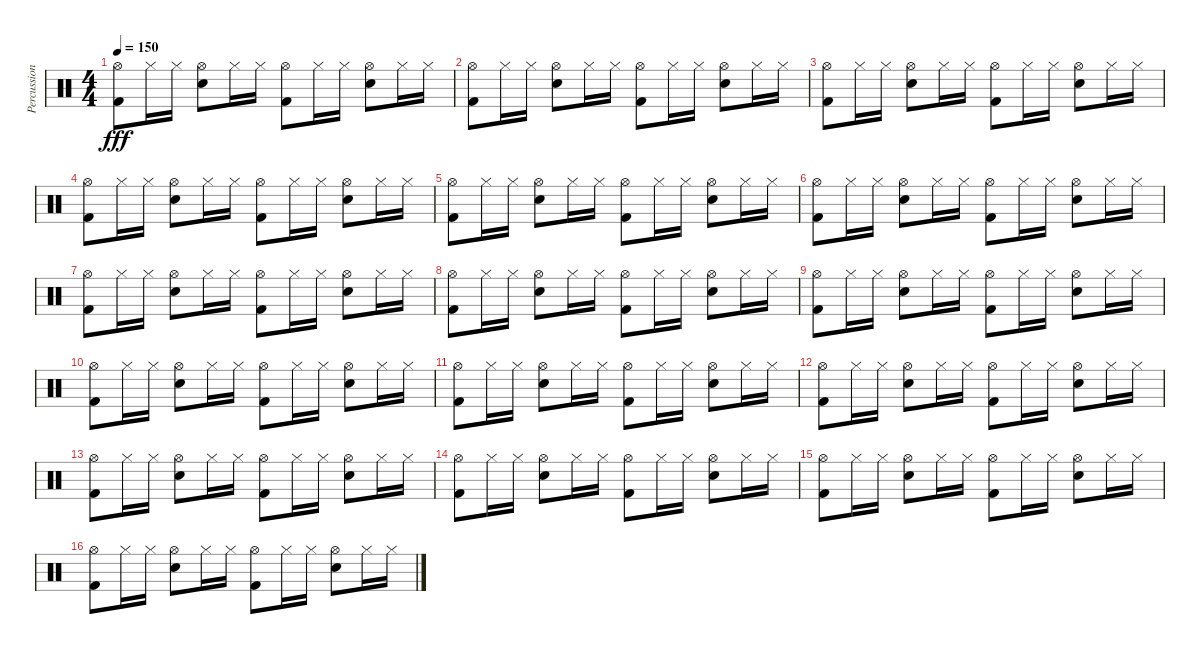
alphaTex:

\track ("Percussion" "Percussion") {instrument percussion}
\staff {score}
\articulation defaults
\ts (4 4)
\tempo 150
\clef neutral
\ks c
("Kick (hit) 2" "Hi-Hat (open)").8{dy fff} "Hi-Hat (closed)".16 "Hi-Hat (closed)".16 ("Snare (hit) 2" "Hi-Hat (open)").8 "Hi-Hat (closed)".16 "Hi-Hat (closed)".16 ("Kick (hit) 2" "Hi-Hat (open)").8 "Hi-Hat (closed)".16 "Hi-Hat (closed)".16 ("Snare (hit) 2" "Hi-Hat (open)").8 "Hi-Hat (closed)".16 "Hi-Hat (closed)".16 |
("Kick (hit) 2" "Hi-Hat (open)").8 "Hi-Hat (closed)".16 "Hi-Hat (closed)".16 ("Snare (hit) 2" "Hi-Hat (open)").8 "Hi-Hat (closed)".16 "Hi-Hat (closed)".16 ("Kick (hit) 2" "Hi-Hat (open)").8 "Hi-Hat (closed)".16 "Hi-Hat (closed)".16 ("Snare (hit) 2" "Hi-Hat (open)").8 "Hi-Hat (closed)".16 "Hi-Hat (closed)".16 |
("Kick (hit) 2" "Hi-Hat (open)").8 "Hi-Hat (closed)".16 "Hi-Hat (closed)".16 ("Snare (hit) 2" "Hi-Hat (open)").8 "Hi-Hat (closed)".16 "Hi-Hat (closed)".16 ("Kick (hit) 2" "Hi-Hat (open)").8 "Hi-Hat (closed)".16 "Hi-Hat (closed)".16 ("Snare (hit) 2" "Hi-Hat (open)").8 "Hi-Hat (closed)".16 "Hi-Hat (closed)".16 |
("Kick (hit) 2" "Hi-Hat (open)").8 "Hi-Hat (closed)".16 "Hi-Hat (closed)".16 ("Snare (hit) 2" "Hi-Hat (open)").8 "Hi-Hat (closed)".16 "Hi-Hat (closed)".16 ("Kick (hit) 2" "Hi-Hat (open)").8 "Hi-Hat (closed)".16 "Hi-Hat (closed)".16 ("Snare (hit) 2" "Hi-Hat (open)").8 "Hi-Hat (closed)".16 "Hi-Hat (closed)".16 |
("Kick (hit) 2" "Hi-Hat (open)").8 "Hi-Hat (closed)".16 "Hi-Hat (closed)".16 ("Snare (hit) 2" "Hi-Hat (open)").8 "Hi-Hat (closed)".16 "Hi-Hat (closed)".16 ("Kick (hit) 2" "Hi-Hat (open)").8 "Hi-Hat (closed)".16 "Hi-Hat (closed)".16 ("Snare (hit) 2" "Hi-Hat (open)").8 "Hi-Hat (closed)".16 "Hi-Hat (closed)".16 |
("Kick (hit) 2" "Hi-Hat (open)").8 "Hi-Hat (closed)".16 "Hi-Hat (closed)".16 ("Snare (hit) 2" "Hi-Hat (open)").8 "Hi-Hat (closed)".16 "Hi-Hat (closed)".16 ("Kick (hit) 2" "Hi-Hat (open)").8 "Hi-Hat (closed)".16 "Hi-Hat (closed)".16 ("Snare (hit) 2" "Hi-Hat (open)").8 "Hi-Hat (closed)".16 "Hi-Hat (closed)".16 |
("Kick (hit) 2" "Hi-Hat (open)").8 "Hi-Hat (closed)".16 "Hi-Hat (closed)".16 ("Snare (hit) 2" "Hi-Hat (open)").8 "Hi-Hat (closed)".16 "Hi-Hat (closed)".16 ("Kick (hit) 2" "Hi-Hat (open)").8 "Hi-Hat (closed)".16 "Hi-Hat (closed)".16 ("Snare (hit) 2" "Hi-Hat (open)").8 "Hi-Hat (closed)".16 "Hi-Hat (closed)".16 |
("Kick (hit) 2" "Hi-Hat (open)").8 "Hi-Hat (closed)".16 "Hi-Hat (closed)".16 ("Snare (hit) 2" "Hi-Hat (open)").8 "Hi-Hat (closed)".16 "Hi-Hat (closed)".16 ("Kick (hit) 2" "Hi-Hat (open)").8 "Hi-Hat (closed)".16 "Hi-Hat (closed)".16 ("Snare (hit) 2" "Hi-Hat (open)").8 "Hi-Hat (closed)".16 "Hi-Hat (closed)".16 |
("Kick (hit) 2" "Hi-Hat (open)").8 "Hi-Hat (closed)".16 "Hi-Hat (closed)".16 ("Snare (hit) 2" "Hi-Hat (open)").8 "Hi-Hat (closed)".16 "Hi-Hat (closed)".16 ("Kick (hit) 2" "Hi-Hat (open)").8 "Hi-Hat (closed)".16 "Hi-Hat (closed)".16 ("Snare (hit) 2" "Hi-Hat (open)").8 "Hi-Hat (closed)".16 "Hi-Hat (closed)".16 |
("Kick (hit) 2" "Hi-Hat (open)").8 "Hi-Hat (closed)".16 "Hi-Hat (closed)".16 ("Snare (hit) 2" "Hi-Hat (open)").8 "Hi-Hat (closed)".16 "Hi-Hat (closed)".16 ("Kick (hit) 2" "Hi-Hat (open)").8 "Hi-Hat (closed)".16 "Hi-Hat (closed)".16 ("Snare (hit) 2" "Hi-Hat (open)").8 "Hi-Hat (closed)".16 "Hi-Hat (closed)".16 |
("Kick (hit) 2" "Hi-Hat (open)").8 "Hi-Hat (closed)".16 "Hi-Hat (closed)".16 ("Snare (hit) 2" "Hi-Hat (open)").8 "Hi-Hat (closed)".16 "Hi-Hat (closed)".16 ("Kick (hit) 2" "Hi-Hat (open)").8 "Hi-Hat (closed)".16 "Hi-Hat (closed)".16 ("Snare (hit) 2" "Hi-Hat (open)").8 "Hi-Hat (closed)".16 "Hi-Hat (closed)".16 |
("Kick (hit) 2" "Hi-Hat (open)").8 "Hi-Hat (closed)".16 "Hi-Hat (closed)".16 ("Snare (hit) 2" "Hi-Hat (open)").8 "Hi-Hat (closed)".16 "Hi-Hat (closed)".16 ("Kick (hit) 2" "Hi-Hat (open)").8 "Hi-Hat (closed)".16 "Hi-Hat (closed)".16 ("Snare (hit) 2" "Hi-Hat (open)").8 "Hi-Hat (closed)".16 "Hi-Hat (closed)".16 |
("Kick (hit) 2" "Hi-Hat (open)").8 "Hi-Hat (closed)".16 "Hi-Hat (closed)".16 ("Snare (hit) 2" "Hi-Hat (open)").8 "Hi-Hat (closed)".16 "Hi-Hat (closed)".16 ("Kick (hit) 2" "Hi-Hat (open)").8 "Hi-Hat (closed)".16 "Hi-Hat (closed)".16 ("Snare (hit) 2" "Hi-Hat (open)").8 "Hi-Hat (closed)".16 "Hi-Hat (closed)".16 |
("Kick (hit) 2" "Hi-Hat (open)").8 "Hi-Hat (closed)".16 "Hi-Hat (closed)".16 ("Snare (hit) 2" "Hi-Hat (open)").8 "Hi-Hat (closed)".16 "Hi-Hat (closed)".16 ("Kick (hit) 2" "Hi-Hat (open)").8 "Hi-Hat (closed)".16 "Hi-Hat (closed)".16 ("Snare (hit) 2" "Hi-Hat (open)").8 "Hi-Hat (closed)".16 "Hi-Hat (closed)".16 |
("Kick (hit) 2" "Hi-Hat (open)").8 "Hi-Hat (closed)".16 "Hi-Hat (closed)".16 ("Snare (hit) 2" "Hi-Hat (open)").8 "Hi-Hat (closed)".16 "Hi-Hat (closed)".16 ("Kick (hit) 2" "Hi-Hat (open)").8 "Hi-Hat (closed)".16 "Hi-Hat (closed)".16 ("Snare (hit) 2" "Hi-Hat (open)").8 "Hi-Hat (closed)".16 "Hi-Hat (closed)".16 |
("Kick (hit) 2" "Hi-Hat (open)").8 "Hi-Hat (closed)".16 "Hi-Hat (closed)".16 ("Snare (hit) 2" "Hi-Hat (open)").8 "Hi-Hat (closed)".16 "Hi-Hat (closed)".16 ("Kick (hit) 2" "Hi-Hat (open)").8 "Hi-Hat (closed)".16 "Hi-Hat (closed)".16 ("Snare (hit) 2" "Hi-Hat (open)").8 "Hi-Hat (closed)".16 "Hi-Hat (closed)".16
